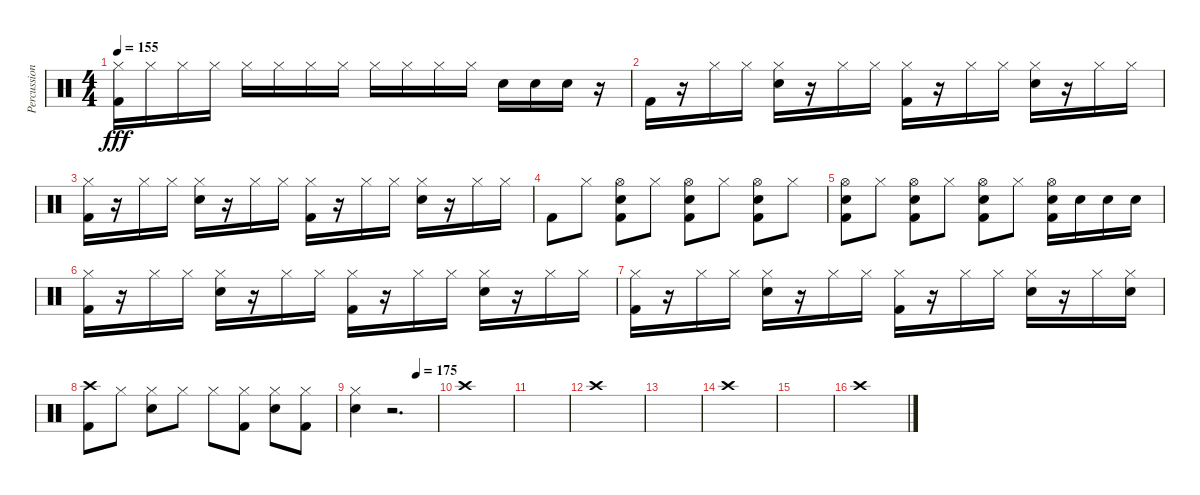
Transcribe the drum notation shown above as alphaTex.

\track ("Percussion" "Percussion") {instrument percussion}
\staff {score}
\articulation defaults
\ts (4 4)
\tempo 155
\clef neutral
\ks c
("Kick (hit) 2" "Hi-Hat (closed)").16{dy fff} "Hi-Hat (closed)".16 "Hi-Hat (closed)".16 "Hi-Hat (closed)".16 "Hi-Hat (closed)".16 "Hi-Hat (closed)".16 "Hi-Hat (closed)".16 "Hi-Hat (closed)".16 "Hi-Hat (closed)".16 "Hi-Hat (closed)".16 "Hi-Hat (closed)".16 "Hi-Hat (closed)".16 "Electric Snare (hit)".16 "Electric Snare (hit)".16 "Electric Snare (hit)".16 r.16 |
"Kick (hit) 2".16 r.16 "Hi-Hat (closed)".16 "Hi-Hat (closed)".16 ("Electric Snare (hit)" "Hi-Hat (closed)").16 r.16 "Hi-Hat (closed)".16 "Hi-Hat (closed)".16 ("Kick (hit) 2" "Hi-Hat (closed)").16 r.16 "Hi-Hat (closed)".16 "Hi-Hat (closed)".16 ("Electric Snare (hit)" "Hi-Hat (closed)").16 r.16 "Hi-Hat (closed)".16 "Hi-Hat (closed)".16 |
("Kick (hit) 2" "Hi-Hat (closed)").16 r.16 "Hi-Hat (closed)".16 "Hi-Hat (closed)".16 ("Electric Snare (hit)" "Hi-Hat (closed)").16 r.16 "Hi-Hat (closed)".16 "Hi-Hat (closed)".16 ("Kick (hit) 2" "Hi-Hat (closed)").16 r.16 "Hi-Hat (closed)".16 "Hi-Hat (closed)".16 ("Electric Snare (hit)" "Hi-Hat (closed)").16 r.16 "Hi-Hat (closed)".16 "Hi-Hat (closed)".16 |
"Kick (hit) 2".8 "Hi-Hat (closed)".8 ("Electric Snare (hit)" "Kick (hit) 2" "Hi-Hat (open)").8 "Hi-Hat (closed)".8 ("Electric Snare (hit)" "Kick (hit) 2" "Hi-Hat (open)").8 "Hi-Hat (closed)".8 ("Electric Snare (hit)" "Kick (hit) 2" "Hi-Hat (open)").8 "Hi-Hat (closed)".8 |
("Electric Snare (hit)" "Kick (hit) 2" "Hi-Hat (open)").8 "Hi-Hat (closed)".8 ("Electric Snare (hit)" "Kick (hit) 2" "Hi-Hat (open)").8 "Hi-Hat (closed)".8 ("Electric Snare (hit)" "Kick (hit) 2" "Hi-Hat (open)").8 "Hi-Hat (closed)".8 ("Electric Snare (hit)" "Kick (hit) 2" "Hi-Hat (open)").16 "Electric Snare (hit)".16 "Electric Snare (hit)".16 "Electric Snare (hit)".16 |
("Kick (hit) 2" "Hi-Hat (closed)").16 r.16 "Hi-Hat (closed)".16 "Hi-Hat (closed)".16 ("Electric Snare (hit)" "Hi-Hat (closed)").16 r.16 "Hi-Hat (closed)".16 "Hi-Hat (closed)".16 ("Kick (hit) 2" "Hi-Hat (closed)").16 r.16 "Hi-Hat (closed)".16 "Hi-Hat (closed)".16 ("Electric Snare (hit)" "Hi-Hat (closed)").16 r.16 "Hi-Hat (closed)".16 "Hi-Hat (closed)".16 |
("Kick (hit) 2" "Hi-Hat (closed)").16 r.16 "Hi-Hat (closed)".16 "Hi-Hat (closed)".16 ("Electric Snare (hit)" "Hi-Hat (closed)").16 r.16 "Hi-Hat (closed)".16 "Hi-Hat (closed)".16 ("Kick (hit) 2" "Hi-Hat (closed)").16 r.16 "Hi-Hat (closed)".16 "Hi-Hat (closed)".16 ("Electric Snare (hit)" "Hi-Hat (closed)").16 r.16 "Hi-Hat (closed)".16 ("Electric Snare (hit)" "Hi-Hat (closed)").16 |
("Kick (hit) 2" "Crash high (hit)").8 "Hi-Hat (closed)".8 ("Electric Snare (hit)" "Hi-Hat (closed)").8 "Hi-Hat (closed)".8 "Hi-Hat (closed)".8 ("Kick (hit) 2" "Hi-Hat (closed)").8 ("Electric Snare (hit)" "Hi-Hat (closed)").8 ("Kick (hit) 2" "Hi-Hat (closed)").8 |
\tempo (175 0.75)
("Electric Snare (hit)" "Hi-Hat (closed)").4 r.2{d} |
"Crash high (hit)".1 |
|
"Crash high (hit)".1 |
|
"Crash high (hit)".1 |
|
"Crash high (hit)".1
